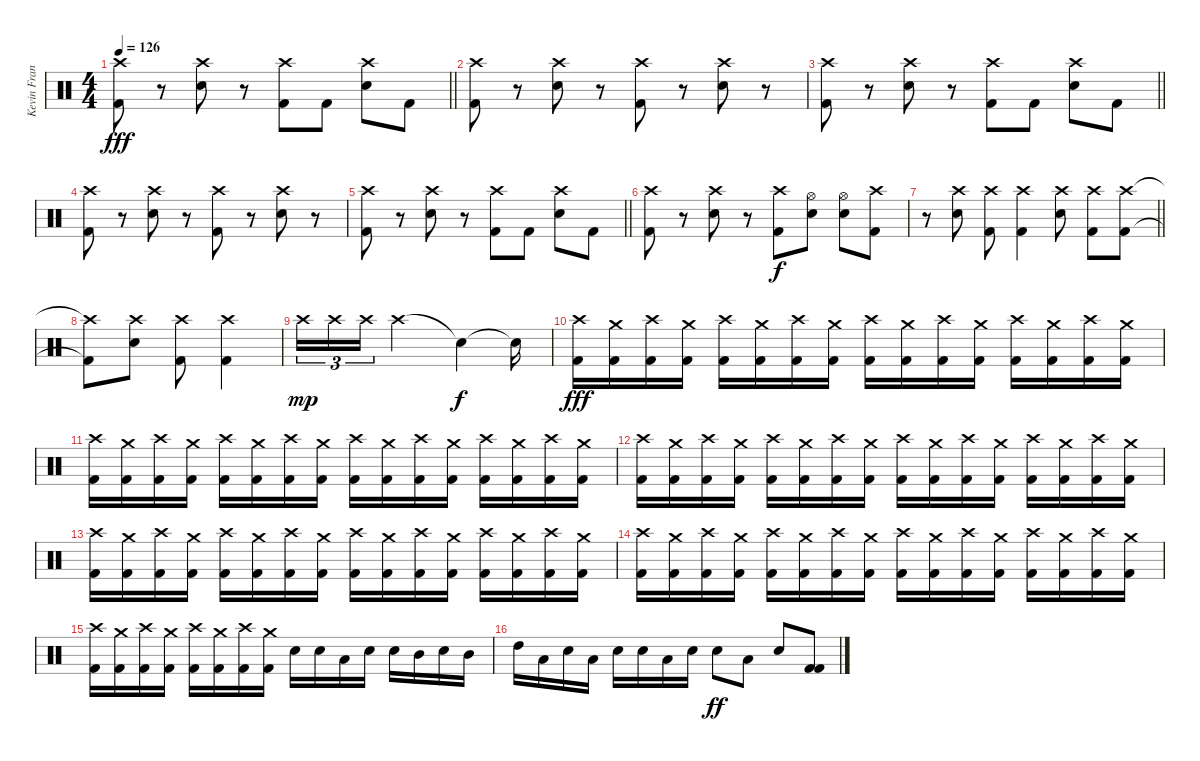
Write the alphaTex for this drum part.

\track ("Kevin Frank" "Kevin Fran") {instrument percussion}
\staff
\articulation defaults
\ts (4 4)
\tempo 126
\clef neutral
\barLineRight lightlight
\ks c
("Crash high (hit)" "Kick (hit) 2").8{dy fff} r.8 ("Crash high (hit)" "Snare (hit) 2").8 r.8 ("Crash high (hit)" "Kick (hit) 2").8 "Kick (hit) 2".8 ("Crash high (hit)" "Snare (hit) 2").8 "Kick (hit) 2".8 |
("Crash high (hit)" "Kick (hit) 2").8 r.8 ("Crash high (hit)" "Snare (hit) 2").8 r.8 ("Crash high (hit)" "Kick (hit) 2").8 r.8 ("Crash high (hit)" "Snare (hit) 2").8 r.8 |
\barLineRight lightlight
("Crash high (hit)" "Kick (hit) 2").8 r.8 ("Crash high (hit)" "Snare (hit) 2").8 r.8 ("Crash high (hit)" "Kick (hit) 2").8 "Kick (hit) 2".8 ("Crash high (hit)" "Snare (hit) 2").8 "Kick (hit) 2".8 |
("Crash high (hit)" "Kick (hit) 2").8 r.8 ("Crash high (hit)" "Snare (hit) 2").8 r.8 ("Crash high (hit)" "Kick (hit) 2").8 r.8 ("Crash high (hit)" "Snare (hit) 2").8 r.8 |
\barLineRight lightlight
("Crash high (hit)" "Kick (hit) 2").8 r.8 ("Crash high (hit)" "Snare (hit) 2").8 r.8 ("Crash high (hit)" "Kick (hit) 2").8 "Kick (hit) 2".8 ("Crash high (hit)" "Snare (hit) 2").8 "Kick (hit) 2".8 |
("Crash high (hit)" "Kick (hit) 2").8 r.8 ("Crash high (hit)" "Snare (hit) 2").8 r.8 ("Crash high (hit)" "Kick (hit) 2").8{dy f} ("Hi-Hat (open)" "Snare (hit) 2").8 ("Hi-Hat (open)" "Snare (hit) 2").8 ("Crash high (hit)" "Kick (hit) 2").8 |
\barLineRight lightlight
r.8 ("Crash high (hit)" "Snare (hit) 2").8 ("Crash high (hit)" "Kick (hit) 2").8 ("Crash high (hit)" "Kick (hit) 2").4 ("Crash high (hit)" "Snare (hit) 2").8 ("Crash high (hit)" "Kick (hit) 2").8 ("Crash high (hit)" "Kick (hit) 2").8 |
("Crash high (hit)"{t} "Kick (hit) 2"{t}).8 ("Crash high (hit)" "Snare (hit) 2").8 ("Crash high (hit)" "Kick (hit) 2").8 ("Crash high (hit)" "Kick (hit) 2").4 |
"Crash high (hit)".16{tu (3 2) dy mp} "Crash high (hit)".16{tu (3 2)} "Crash high (hit)".16{tu (3 2)} "Crash high (hit)".2 "Snare (hit)"{t}.4{dy f} "Snare (hit)"{t}.16 |
("Crash high (hit)" "Kick (hit) 2").16{dy fff} ("Crash medium (hit)" "Kick (hit) 2").16 ("Crash high (hit)" "Kick (hit) 2").16 ("Crash medium (hit)" "Kick (hit) 2").16 ("Crash high (hit)" "Kick (hit) 2").16 ("Crash medium (hit)" "Kick (hit) 2").16 ("Crash high (hit)" "Kick (hit) 2").16 ("Crash medium (hit)" "Kick (hit) 2").16 ("Crash high (hit)" "Kick (hit) 2").16 ("Crash medium (hit)" "Kick (hit) 2").16 ("Crash high (hit)" "Kick (hit) 2").16 ("Crash medium (hit)" "Kick (hit) 2").16 ("Crash high (hit)" "Kick (hit) 2").16 ("Crash medium (hit)" "Kick (hit) 2").16 ("Crash high (hit)" "Kick (hit) 2").16 ("Crash medium (hit)" "Kick (hit) 2").16 |
("Crash high (hit)" "Kick (hit) 2").16 ("Crash medium (hit)" "Kick (hit) 2").16 ("Crash high (hit)" "Kick (hit) 2").16 ("Crash medium (hit)" "Kick (hit) 2").16 ("Crash high (hit)" "Kick (hit) 2").16 ("Crash medium (hit)" "Kick (hit) 2").16 ("Crash high (hit)" "Kick (hit) 2").16 ("Crash medium (hit)" "Kick (hit) 2").16 ("Crash high (hit)" "Kick (hit) 2").16 ("Crash medium (hit)" "Kick (hit) 2").16 ("Crash high (hit)" "Kick (hit) 2").16 ("Crash medium (hit)" "Kick (hit) 2").16 ("Crash high (hit)" "Kick (hit) 2").16 ("Crash medium (hit)" "Kick (hit) 2").16 ("Crash high (hit)" "Kick (hit) 2").16 ("Crash medium (hit)" "Kick (hit) 2").16 |
("Crash high (hit)" "Kick (hit) 2").16 ("Crash medium (hit)" "Kick (hit) 2").16 ("Crash high (hit)" "Kick (hit) 2").16 ("Crash medium (hit)" "Kick (hit) 2").16 ("Crash high (hit)" "Kick (hit) 2").16 ("Crash medium (hit)" "Kick (hit) 2").16 ("Crash high (hit)" "Kick (hit) 2").16 ("Crash medium (hit)" "Kick (hit) 2").16 ("Crash high (hit)" "Kick (hit) 2").16 ("Crash medium (hit)" "Kick (hit) 2").16 ("Crash high (hit)" "Kick (hit) 2").16 ("Crash medium (hit)" "Kick (hit) 2").16 ("Crash high (hit)" "Kick (hit) 2").16 ("Crash medium (hit)" "Kick (hit) 2").16 ("Crash high (hit)" "Kick (hit) 2").16 ("Crash medium (hit)" "Kick (hit) 2").16 |
("Crash high (hit)" "Kick (hit) 2").16 ("Crash medium (hit)" "Kick (hit) 2").16 ("Crash high (hit)" "Kick (hit) 2").16 ("Crash medium (hit)" "Kick (hit) 2").16 ("Crash high (hit)" "Kick (hit) 2").16 ("Crash medium (hit)" "Kick (hit) 2").16 ("Crash high (hit)" "Kick (hit) 2").16 ("Crash medium (hit)" "Kick (hit) 2").16 ("Crash high (hit)" "Kick (hit) 2").16 ("Crash medium (hit)" "Kick (hit) 2").16 ("Crash high (hit)" "Kick (hit) 2").16 ("Crash medium (hit)" "Kick (hit) 2").16 ("Crash high (hit)" "Kick (hit) 2").16 ("Crash medium (hit)" "Kick (hit) 2").16 ("Crash high (hit)" "Kick (hit) 2").16 ("Crash medium (hit)" "Kick (hit) 2").16 |
("Crash high (hit)" "Kick (hit) 2").16 ("Crash medium (hit)" "Kick (hit) 2").16 ("Crash high (hit)" "Kick (hit) 2").16 ("Crash medium (hit)" "Kick (hit) 2").16 ("Crash high (hit)" "Kick (hit) 2").16 ("Crash medium (hit)" "Kick (hit) 2").16 ("Crash high (hit)" "Kick (hit) 2").16 ("Crash medium (hit)" "Kick (hit) 2").16 ("Crash high (hit)" "Kick (hit) 2").16 ("Crash medium (hit)" "Kick (hit) 2").16 ("Crash high (hit)" "Kick (hit) 2").16 ("Crash medium (hit)" "Kick (hit) 2").16 ("Crash high (hit)" "Kick (hit) 2").16 ("Crash medium (hit)" "Kick (hit) 2").16 ("Crash high (hit)" "Kick (hit) 2").16 ("Crash medium (hit)" "Kick (hit) 2").16 |
("Crash high (hit)" "Kick (hit) 2").16 ("Crash medium (hit)" "Kick (hit) 2").16 ("Crash high (hit)" "Kick (hit) 2").16 ("Crash medium (hit)" "Kick (hit) 2").16 ("Crash high (hit)" "Kick (hit) 2").16 ("Crash medium (hit)" "Kick (hit) 2").16 ("Crash high (hit)" "Kick (hit) 2").16 ("Crash medium (hit)" "Kick (hit) 2").16 "Snare (hit) 2".16 "Snare (hit) 2".16 "Low Tom (hit)".16 "Snare (hit) 2".16 "Snare (hit) 2".16 "Mid Tom (hit)".16 "Snare (hit) 2".16 "Mid Tom (hit)".16 |
"High Tom (hit)".16 "Low Tom (hit)".16 "Snare (hit) 2".16 "Low Tom (hit)".16 "Snare (hit) 2".16 "Snare (hit) 2".16 "Low Tom (hit)".16 "Snare (hit) 2".16 "Snare (hit) 2".8{dy ff} "Low Tom (hit)".8 "Snare (hit) 2".8 ("Kick (hit) 2" "Kick (hit) 2").8
